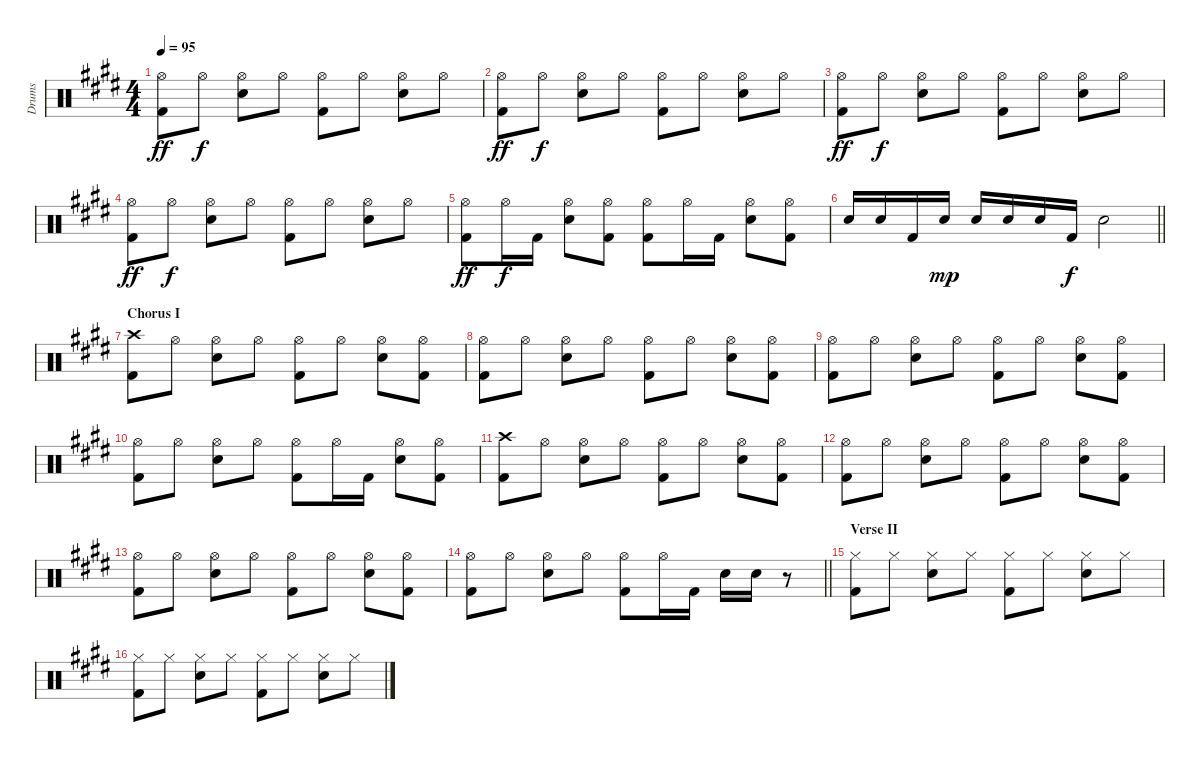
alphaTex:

\track ("Drums" "Drums") {instrument percussion}
\staff {score}
\articulation defaults
\ts (4 4)
\tempo 95
\clef neutral
\ks e
("Hi-Hat (open)" "Kick (hit) 2").8{dy ff} "Hi-Hat (open)".8{dy f} ("Hi-Hat (open)" "Snare (hit) 2").8 "Hi-Hat (open)".8 ("Hi-Hat (open)" "Kick (hit) 2").8 "Hi-Hat (open)".8 ("Hi-Hat (open)" "Snare (hit) 2").8 "Hi-Hat (open)".8 |
("Hi-Hat (open)" "Kick (hit) 2").8{dy ff} "Hi-Hat (open)".8{dy f} ("Hi-Hat (open)" "Snare (hit) 2").8 "Hi-Hat (open)".8 ("Hi-Hat (open)" "Kick (hit) 2").8 "Hi-Hat (open)".8 ("Hi-Hat (open)" "Snare (hit) 2").8 "Hi-Hat (open)".8 |
("Hi-Hat (open)" "Kick (hit) 2").8{dy ff} "Hi-Hat (open)".8{dy f} ("Hi-Hat (open)" "Snare (hit) 2").8 "Hi-Hat (open)".8 ("Hi-Hat (open)" "Kick (hit) 2").8 "Hi-Hat (open)".8 ("Hi-Hat (open)" "Snare (hit) 2").8 "Hi-Hat (open)".8 |
("Hi-Hat (open)" "Kick (hit) 2").8{dy ff} "Hi-Hat (open)".8{dy f} ("Hi-Hat (open)" "Snare (hit) 2").8 "Hi-Hat (open)".8 ("Hi-Hat (open)" "Kick (hit) 2").8 "Hi-Hat (open)".8 ("Hi-Hat (open)" "Snare (hit) 2").8 "Hi-Hat (open)".8 |
("Hi-Hat (open)" "Kick (hit) 2").8{dy ff} "Hi-Hat (open)".16{dy f} "Kick (hit) 2".16 ("Hi-Hat (open)" "Snare (hit) 2").8 ("Hi-Hat (open)" "Kick (hit) 2").8 ("Hi-Hat (open)" "Kick (hit) 2").8 "Hi-Hat (open)".16 "Kick (hit) 2".16 ("Hi-Hat (open)" "Snare (hit) 2").8 ("Hi-Hat (open)" "Kick (hit) 2").8 |
\barLineRight lightlight "Snare (hit) 2".16 "Snare (hit) 2".16 "Kick (hit) 2".16 "Snare (hit) 2".16{dy mp} "Snare (hit) 2".16 "Snare (hit) 2".16 "Snare (hit) 2".16 "Kick (hit) 2".16{dy f} "Snare (hit) 2".2
|
\section ("" "Chorus I")
("Crash high (hit)" "Kick (hit) 2").8 "Hi-Hat (open)".8 ("Hi-Hat (open)" "Snare (hit) 2").8 "Hi-Hat (open)".8 ("Hi-Hat (open)" "Kick (hit) 2").8 "Hi-Hat (open)".8 ("Hi-Hat (open)" "Snare (hit) 2").8 ("Hi-Hat (open)" "Kick (hit) 2").8 |
("Hi-Hat (open)" "Kick (hit) 2").8 "Hi-Hat (open)".8 ("Hi-Hat (open)" "Snare (hit) 2").8 "Hi-Hat (open)".8 ("Hi-Hat (open)" "Kick (hit) 2").8 "Hi-Hat (open)".8 ("Hi-Hat (open)" "Snare (hit) 2").8 ("Hi-Hat (open)" "Kick (hit) 2").8 |
("Hi-Hat (open)" "Kick (hit) 2").8 "Hi-Hat (open)".8 ("Hi-Hat (open)" "Snare (hit) 2").8 "Hi-Hat (open)".8 ("Hi-Hat (open)" "Kick (hit) 2").8 "Hi-Hat (open)".8 ("Hi-Hat (open)" "Snare (hit) 2").8 ("Hi-Hat (open)" "Kick (hit) 2").8 |
("Hi-Hat (open)" "Kick (hit) 2").8 "Hi-Hat (open)".8 ("Hi-Hat (open)" "Snare (hit) 2").8 "Hi-Hat (open)".8 ("Hi-Hat (open)" "Kick (hit) 2").8 "Hi-Hat (open)".16 "Kick (hit) 2".16 ("Hi-Hat (open)" "Snare (hit) 2").8 ("Hi-Hat (open)" "Kick (hit) 2").8 |
("Crash high (hit)" "Kick (hit) 2").8 "Hi-Hat (open)".8 ("Hi-Hat (open)" "Snare (hit) 2").8 "Hi-Hat (open)".8 ("Hi-Hat (open)" "Kick (hit) 2").8 "Hi-Hat (open)".8 ("Hi-Hat (open)" "Snare (hit) 2").8 ("Hi-Hat (open)" "Kick (hit) 2").8 |
("Hi-Hat (open)" "Kick (hit) 2").8 "Hi-Hat (open)".8 ("Hi-Hat (open)" "Snare (hit) 2").8 "Hi-Hat (open)".8 ("Hi-Hat (open)" "Kick (hit) 2").8 "Hi-Hat (open)".8 ("Hi-Hat (open)" "Snare (hit) 2").8 ("Hi-Hat (open)" "Kick (hit) 2").8 |
("Hi-Hat (open)" "Kick (hit) 2").8 "Hi-Hat (open)".8 ("Hi-Hat (open)" "Snare (hit) 2").8 "Hi-Hat (open)".8 ("Hi-Hat (open)" "Kick (hit) 2").8 "Hi-Hat (open)".8 ("Hi-Hat (open)" "Snare (hit) 2").8 ("Hi-Hat (open)" "Kick (hit) 2").8 |
\barLineRight lightlight
("Hi-Hat (open)" "Kick (hit) 2").8 "Hi-Hat (open)".8 ("Hi-Hat (open)" "Snare (hit) 2").8 "Hi-Hat (open)".8 ("Hi-Hat (open)" "Kick (hit) 2").8 "Hi-Hat (open)".16 "Kick (hit) 2".16 "Snare (hit) 2".16 "Snare (hit) 2".16 r.8 |
\section ("" "Verse II")
("Hi-Hat (closed)" "Kick (hit) 2").8 "Hi-Hat (closed)".8 ("Hi-Hat (closed)" "Snare (hit) 2").8 "Hi-Hat (closed)".8 ("Hi-Hat (closed)" "Kick (hit) 2").8 "Hi-Hat (closed)".8 ("Hi-Hat (closed)" "Snare (hit) 2").8 "Hi-Hat (closed)".8 |
("Hi-Hat (closed)" "Kick (hit) 2").8 "Hi-Hat (closed)".8 ("Hi-Hat (closed)" "Snare (hit) 2").8 "Hi-Hat (closed)".8 ("Hi-Hat (closed)" "Kick (hit) 2").8 "Hi-Hat (closed)".8 ("Hi-Hat (closed)" "Snare (hit) 2").8 "Hi-Hat (closed)".8
